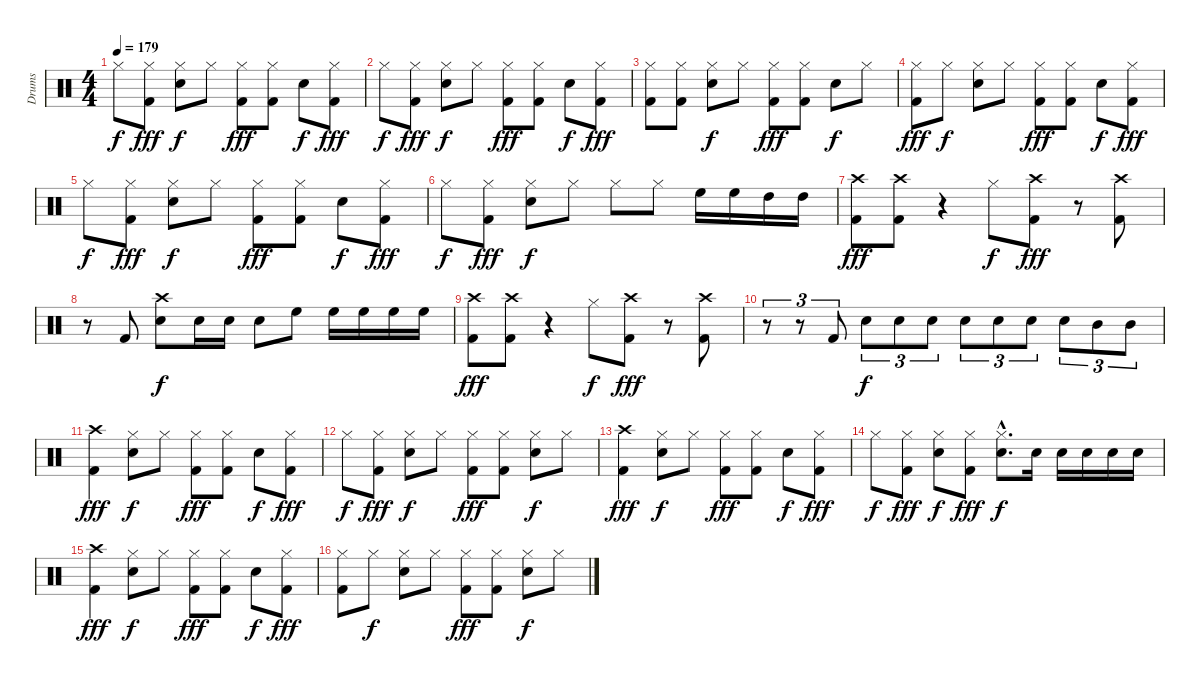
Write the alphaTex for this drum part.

\track ("Drums" "Drums") {instrument percussion}
\staff {score}
\articulation defaults
\ts (4 4)
\tempo 179
\clef neutral
\ks c "Hi-Hat (closed)".8{dy f}
("Hi-Hat (closed)" "Kick (hit) 2").8{dy fff} ("Hi-Hat (closed)" "Electric Snare (hit)").8{dy f} "Hi-Hat (closed)".8 ("Hi-Hat (closed)" "Kick (hit) 2").8{dy fff} ("Hi-Hat (closed)" "Kick (hit) 2").8 "Electric Snare (hit)".8{dy f} ("Hi-Hat (closed)" "Kick (hit) 2").8{dy fff} |
"Hi-Hat (closed)".8{dy f} ("Hi-Hat (closed)" "Kick (hit) 2").8{dy fff} ("Hi-Hat (closed)" "Electric Snare (hit)").8{dy f} "Hi-Hat (closed)".8 ("Hi-Hat (closed)" "Kick (hit) 2").8{dy fff} ("Hi-Hat (closed)" "Kick (hit) 2").8 "Electric Snare (hit)".8{dy f} ("Hi-Hat (closed)" "Kick (hit) 2").8{dy fff} |
("Hi-Hat (closed)" "Kick (hit) 2").8 ("Hi-Hat (closed)" "Kick (hit) 2").8 ("Hi-Hat (closed)" "Electric Snare (hit)").8{dy f} "Hi-Hat (closed)".8 ("Hi-Hat (closed)" "Kick (hit) 2").8{dy fff} ("Hi-Hat (closed)" "Kick (hit) 2").8 "Electric Snare (hit)".8{dy f} "Hi-Hat (closed)".8 |
("Hi-Hat (closed)" "Kick (hit) 2").8{dy fff} "Hi-Hat (closed)".8{dy f} ("Hi-Hat (closed)" "Electric Snare (hit)").8 "Hi-Hat (closed)".8 ("Hi-Hat (closed)" "Kick (hit) 2").8{dy fff} ("Hi-Hat (closed)" "Kick (hit) 2").8 "Electric Snare (hit)".8{dy f} ("Hi-Hat (closed)" "Kick (hit) 2").8{dy fff} |
"Hi-Hat (closed)".8{dy f} ("Hi-Hat (closed)" "Kick (hit) 2").8{dy fff} ("Hi-Hat (closed)" "Electric Snare (hit)").8{dy f} "Hi-Hat (closed)".8 ("Hi-Hat (closed)" "Kick (hit) 2").8{dy fff} ("Hi-Hat (closed)" "Kick (hit) 2").8 "Electric Snare (hit)".8{dy f} ("Hi-Hat (closed)" "Kick (hit) 2").8{dy fff} |
"Hi-Hat (closed)".8{dy f} ("Hi-Hat (closed)" "Kick (hit) 2").8{dy fff} ("Hi-Hat (closed)" "Electric Snare (hit)").8{dy f} "Hi-Hat (closed)".8 "Hi-Hat (closed)".8 "Hi-Hat (closed)".8 "High Floor Tom (hit)".16 "High Floor Tom (hit)".16 "High Tom (hit)".16 "High Tom (hit)".16 |
("Crash high (hit)" "Kick (hit) 2").8{dy fff} ("Crash high (hit)" "Kick (hit) 2").8 r.4 "Hi-Hat (closed)".8{dy f} ("Crash high (hit)" "Kick (hit) 2").8{dy fff} r.8 ("Crash high (hit)" "Kick (hit) 2").8 |
r.8 "Kick (hit) 2".8 ("Crash high (hit)" "Electric Snare (hit)").8{dy f} "Electric Snare (hit)".16 "Electric Snare (hit)".16 "Electric Snare (hit)".8 "High Floor Tom (hit)".8 "High Floor Tom (hit)".16 "High Floor Tom (hit)".16 "High Floor Tom (hit)".16 "High Floor Tom (hit)".16 |
("Crash high (hit)" "Kick (hit) 2").8{dy fff} ("Crash high (hit)" "Kick (hit) 2").8 r.4 "Hi-Hat (closed)".8{dy f} ("Crash high (hit)" "Kick (hit) 2").8{dy fff} r.8 ("Crash high (hit)" "Kick (hit) 2").8 |
r.8{tu (3 2)} r.8{tu (3 2)} "Kick (hit) 2".8{tu (3 2)} "Electric Snare (hit)".8{tu (3 2) dy f} "Electric Snare (hit)".8{tu (3 2)} "Electric Snare (hit)".8{tu (3 2)} "Electric Snare (hit)".8{tu (3 2)} "Electric Snare (hit)".8{tu (3 2)} "Electric Snare (hit)".8{tu (3 2)} "Electric Snare (hit)".8{tu (3 2)} "Mid Tom (hit)".8{tu (3 2)} "Mid Tom (hit)".8{tu (3 2)} |
("Crash high (hit)" "Kick (hit) 2").4{dy fff} ("Hi-Hat (closed)" "Electric Snare (hit)").8{dy f} "Hi-Hat (closed)".8 ("Hi-Hat (closed)" "Kick (hit) 2").8{dy fff} ("Hi-Hat (closed)" "Kick (hit) 2").8 "Electric Snare (hit)".8{dy f} ("Hi-Hat (closed)" "Kick (hit) 2").8{dy fff} |
"Hi-Hat (closed)".8{dy f} ("Hi-Hat (closed)" "Kick (hit) 2").8{dy fff} ("Hi-Hat (closed)" "Electric Snare (hit)").8{dy f} "Hi-Hat (closed)".8 ("Hi-Hat (closed)" "Kick (hit) 2").8{dy fff} ("Hi-Hat (closed)" "Kick (hit) 2").8 ("Hi-Hat (closed)" "Electric Snare (hit)").8{dy f} "Hi-Hat (closed)".8 |
("Crash high (hit)" "Kick (hit) 2").4{dy fff} ("Hi-Hat (closed)" "Electric Snare (hit)").8{dy f} "Hi-Hat (closed)".8 ("Hi-Hat (closed)" "Kick (hit) 2").8{dy fff} ("Hi-Hat (closed)" "Kick (hit) 2").8 "Electric Snare (hit)".8{dy f} ("Hi-Hat (closed)" "Kick (hit) 2").8{dy fff} |
"Hi-Hat (closed)".8{dy f} ("Hi-Hat (closed)" "Kick (hit) 2").8{dy fff} ("Hi-Hat (closed)" "Electric Snare (hit)").8{dy f} ("Hi-Hat (closed)" "Kick (hit) 2").8{dy fff} ("Hi-Hat (closed)"{hac} "Electric Snare (hit)"{hac}).8{d dy f} "Electric Snare (hit)".16 "Electric Snare (hit)".16 "Electric Snare (hit)".16 "Electric Snare (hit)".16 "Electric Snare (hit)".16 |
("Crash high (hit)" "Kick (hit) 2").4{dy fff} ("Hi-Hat (closed)" "Electric Snare (hit)").8{dy f} "Hi-Hat (closed)".8 ("Hi-Hat (closed)" "Kick (hit) 2").8{dy fff} ("Hi-Hat (closed)" "Kick (hit) 2").8 "Electric Snare (hit)".8{dy f} ("Hi-Hat (closed)" "Kick (hit) 2").8{dy fff} |
("Hi-Hat (closed)" "Kick (hit) 2").8 "Hi-Hat (closed)".8{dy f} ("Hi-Hat (closed)" "Electric Snare (hit)").8 "Hi-Hat (closed)".8 ("Hi-Hat (closed)" "Kick (hit) 2").8{dy fff} ("Hi-Hat (closed)" "Kick (hit) 2").8 ("Hi-Hat (closed)" "Electric Snare (hit)").8{dy f} "Hi-Hat (closed)".8
